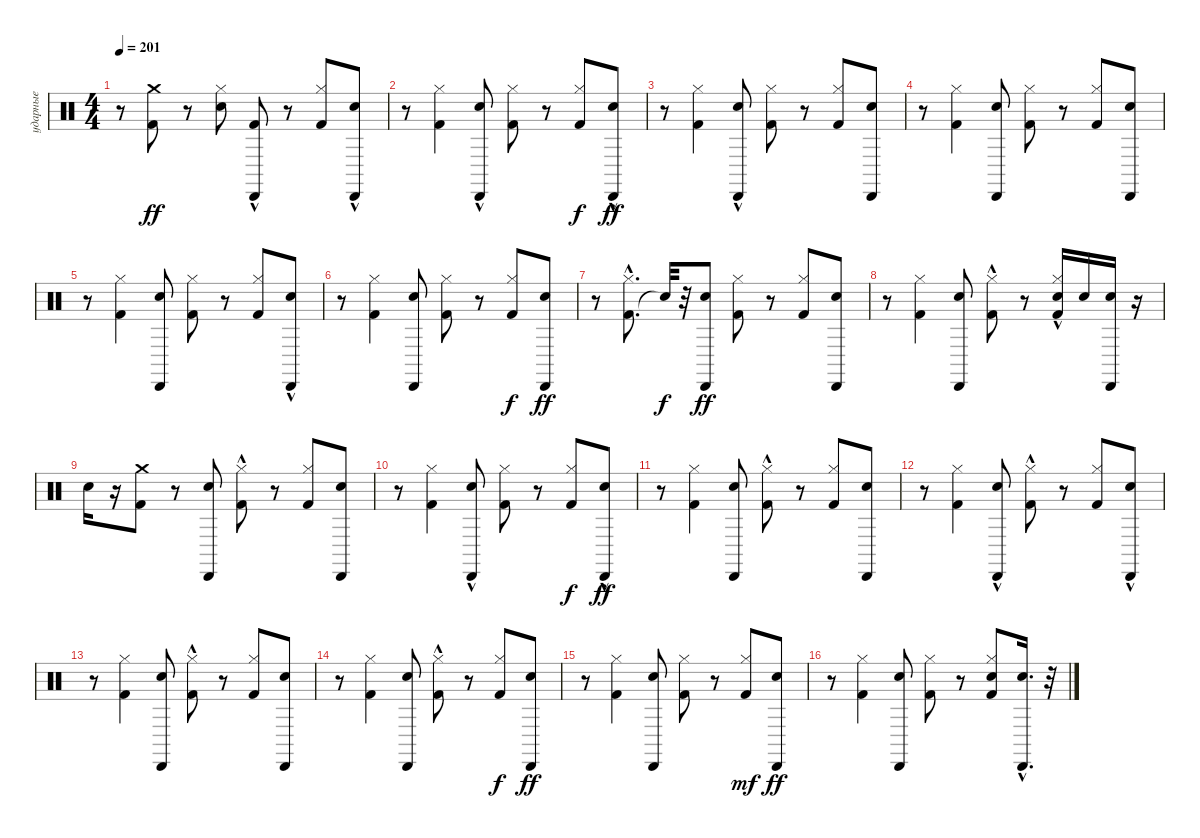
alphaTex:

\track ("ударные" "ударные") {instrument percussion}
\staff {score}
\articulation defaults
\ts (4 4)
\tempo 201
\clef neutral
\ks c
r.8{dy ff} ("Kick (hit) 2" "Crash medium (hit)").8 r.8 ("Electric Snare (hit)" "Hi-Hat (closed)").8 ("Kick (hit) 2" "Cabasa (hit)"{hac}).8 r.8 ("Kick (hit) 2" "Hi-Hat (closed)").8 ("Electric Snare (hit)" "Cabasa (hit)"{hac}).8 |
r.8 ("Kick (hit) 2" "Hi-Hat (closed)").4 ("Electric Snare (hit)" "Cabasa (hit)"{hac}).8 ("Kick (hit) 2" "Hi-Hat (closed)").8 r.8 ("Kick (hit) 2" "Hi-Hat (closed)").8{dy f} ("Electric Snare (hit)" "Cabasa (hit)"{hac}).8{dy ff} |
r.8 ("Kick (hit) 2" "Hi-Hat (closed)").4 ("Electric Snare (hit)" "Cabasa (hit)"{hac}).8 ("Kick (hit) 2" "Hi-Hat (closed)").8 r.8 ("Kick (hit) 2" "Hi-Hat (closed)").8 ("Electric Snare (hit)" "Cabasa (hit)").8 |
r.8 ("Kick (hit) 2" "Hi-Hat (closed)").4 ("Electric Snare (hit)" "Cabasa (hit)").8 ("Kick (hit) 2" "Hi-Hat (closed)").8 r.8 ("Kick (hit) 2" "Hi-Hat (closed)").8 ("Electric Snare (hit)" "Cabasa (hit)").8 |
r.8 ("Kick (hit) 2" "Hi-Hat (closed)").4 ("Electric Snare (hit)" "Cabasa (hit)").8 ("Kick (hit) 2" "Hi-Hat (closed)").8 r.8 ("Kick (hit) 2" "Hi-Hat (closed)").8 ("Electric Snare (hit)" "Cabasa (hit)"{hac}).8 |
r.8 ("Kick (hit) 2" "Hi-Hat (closed)").4 ("Electric Snare (hit)" "Cabasa (hit)").8 ("Kick (hit) 2" "Hi-Hat (closed)").8 r.8 ("Kick (hit) 2" "Hi-Hat (closed)").8{dy f} ("Electric Snare (hit)" "Cabasa (hit)").8{dy ff} |
r.8 ("Kick (hit) 2" "Hi-Hat (closed)"{hac}).8{d} "Snare (hit)"{t}.32{dy f} r.32 ("Electric Snare (hit)" "Cabasa (hit)").8{dy ff} ("Kick (hit) 2" "Hi-Hat (closed)").8 r.8 ("Kick (hit) 2" "Hi-Hat (closed)").8 ("Electric Snare (hit)" "Cabasa (hit)").8 |
r.8 ("Kick (hit) 2" "Hi-Hat (closed)").4 ("Electric Snare (hit)" "Cabasa (hit)").8 ("Kick (hit) 2" "Hi-Hat (closed)"{hac}).8 r.8 ("Kick (hit) 2" "Electric Snare (hit)" "Hi-Hat (closed)"{hac}).16 "Electric Snare (hit)".16 ("Electric Snare (hit)" "Cabasa (hit)").16 r.16 |
"Electric Snare (hit)".16 r.16 ("Kick (hit) 2" "Crash medium (hit)").8 r.8 ("Electric Snare (hit)" "Cabasa (hit)").8 ("Kick (hit) 2" "Hi-Hat (closed)"{hac}).8 r.8 ("Kick (hit) 2" "Hi-Hat (closed)").8 ("Electric Snare (hit)" "Cabasa (hit)").8 |
r.8 ("Kick (hit) 2" "Hi-Hat (closed)").4 ("Electric Snare (hit)" "Cabasa (hit)"{hac}).8 ("Kick (hit) 2" "Hi-Hat (closed)").8 r.8 ("Kick (hit) 2" "Hi-Hat (closed)").8{dy f} ("Electric Snare (hit)" "Cabasa (hit)"{hac}).8{dy ff} |
r.8 ("Kick (hit) 2" "Hi-Hat (closed)").4 ("Electric Snare (hit)" "Cabasa (hit)").8 ("Kick (hit) 2" "Hi-Hat (closed)"{hac}).8 r.8 ("Kick (hit) 2" "Hi-Hat (closed)").8 ("Electric Snare (hit)" "Cabasa (hit)").8 |
r.8 ("Kick (hit) 2" "Hi-Hat (closed)").4 ("Electric Snare (hit)" "Cabasa (hit)"{hac}).8 ("Kick (hit) 2" "Hi-Hat (closed)"{hac}).8 r.8 ("Kick (hit) 2" "Hi-Hat (closed)").8 ("Electric Snare (hit)" "Cabasa (hit)"{hac}).8 |
r.8 ("Kick (hit) 2" "Hi-Hat (closed)").4 ("Electric Snare (hit)" "Cabasa (hit)").8 ("Kick (hit) 2" "Hi-Hat (closed)"{hac}).8 r.8 ("Kick (hit) 2" "Hi-Hat (closed)").8 ("Electric Snare (hit)" "Cabasa (hit)").8 |
r.8 ("Kick (hit) 2" "Hi-Hat (closed)").4 ("Electric Snare (hit)" "Cabasa (hit)").8 ("Kick (hit) 2" "Hi-Hat (closed)"{hac}).8 r.8 ("Kick (hit) 2" "Hi-Hat (closed)").8{dy f} ("Electric Snare (hit)" "Cabasa (hit)").8{dy ff} |
r.8 ("Kick (hit) 2" "Hi-Hat (closed)").4 ("Electric Snare (hit)" "Cabasa (hit)").8 ("Kick (hit) 2" "Hi-Hat (closed)").8 r.8 ("Kick (hit) 2" "Hi-Hat (closed)").8{dy mf} ("Electric Snare (hit)" "Cabasa (hit)").8{dy ff} |
r.8 ("Kick (hit) 2" "Hi-Hat (closed)").4 ("Electric Snare (hit)" "Cabasa (hit)").8 ("Kick (hit) 2" "Hi-Hat (closed)").8 r.8 ("Kick (hit) 2" "Electric Snare (hit)" "Hi-Hat (closed)").8 ("Electric Snare (hit)" "Cabasa (hit)"{hac}).16{d} r.32
